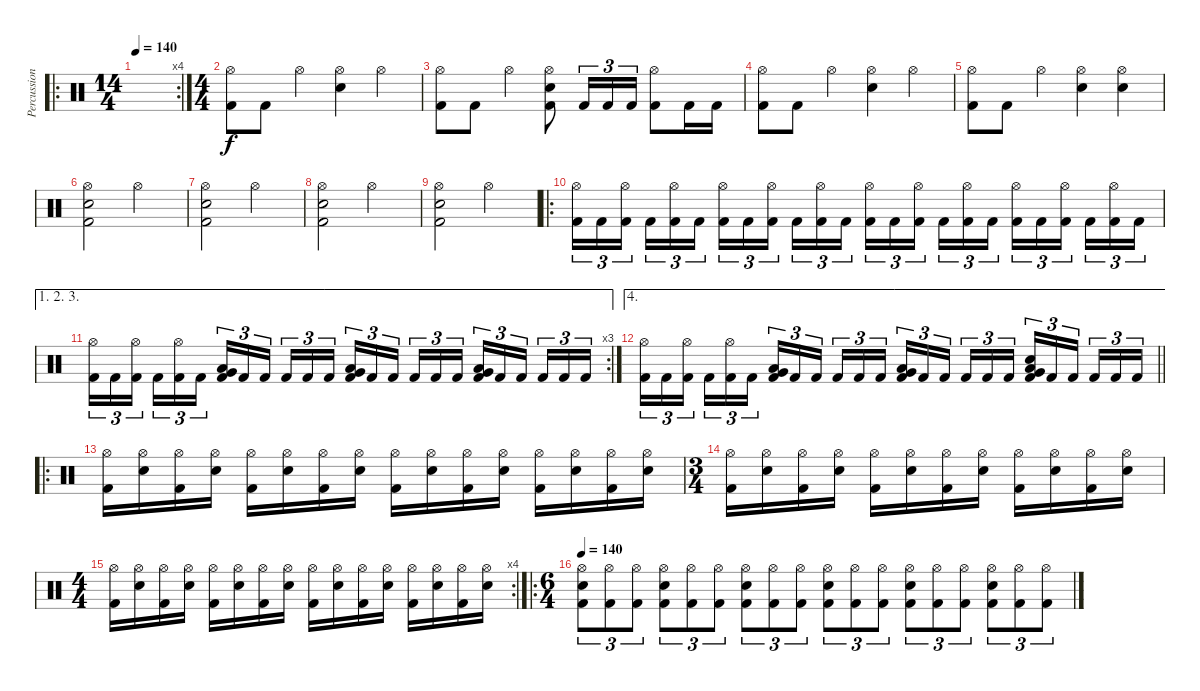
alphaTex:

\track ("Percussion" "Percussion") {instrument percussion}
\staff {score}
\articulation defaults
\ro
\rc 4
\ts (14 4)
\tempo 140
\clef neutral
\ks c
|
\ts (4 4)
("Hi-Hat (open)" "Kick (hit) 2").8 "Kick (hit) 2".8 "Hi-Hat (open)".4 ("Hi-Hat (open)" "Snare (hit) 2").4 "Hi-Hat (open)".4 |
("Hi-Hat (open)" "Kick (hit) 2").8 "Kick (hit) 2".8 "Hi-Hat (open)".4 ("Hi-Hat (open)" "Snare (hit) 2" "Kick (hit) 2").8 "Kick (hit) 2".16{tu (3 2)} "Kick (hit) 2".16{tu (3 2)} "Kick (hit) 2".16{tu (3 2)} ("Hi-Hat (open)" "Kick (hit) 2").8 "Kick (hit) 2".16 "Kick (hit) 2".16 |
("Hi-Hat (open)" "Kick (hit) 2").8 "Kick (hit) 2".8 "Hi-Hat (open)".4 ("Hi-Hat (open)" "Snare (hit) 2").4 "Hi-Hat (open)".4 |
("Hi-Hat (open)" "Kick (hit) 2").8 "Kick (hit) 2".8 "Hi-Hat (open)".4 ("Hi-Hat (open)" "Snare (hit) 2").4 ("Hi-Hat (open)" "Snare (hit) 2").4 |
("Hi-Hat (open)" "Snare (hit) 2" "Kick (hit) 2").2 "Hi-Hat (open)".2 |
("Hi-Hat (open)" "Snare (hit) 2" "Kick (hit) 2").2 "Hi-Hat (open)".2 |
("Hi-Hat (open)" "Snare (hit) 2" "Kick (hit) 2").2 "Hi-Hat (open)".2 |
("Hi-Hat (open)" "Snare (hit) 2" "Kick (hit) 2").2 "Hi-Hat (open)".2 |
\ro
("Hi-Hat (open)" "Kick (hit) 2").16{tu (3 2)} "Kick (hit) 2".16{tu (3 2)} ("Hi-Hat (open)" "Kick (hit) 2").16{tu (3 2)} "Kick (hit) 2".16{tu (3 2)} ("Hi-Hat (open)" "Kick (hit) 2").16{tu (3 2)} "Kick (hit) 2".16{tu (3 2)} ("Hi-Hat (open)" "Kick (hit) 2").16{tu (3 2)} "Kick (hit) 2".16{tu (3 2)} ("Hi-Hat (open)" "Kick (hit) 2").16{tu (3 2)} "Kick (hit) 2".16{tu (3 2)} ("Hi-Hat (open)" "Kick (hit) 2").16{tu (3 2)} "Kick (hit) 2".16{tu (3 2)} ("Hi-Hat (open)" "Kick (hit) 2").16{tu (3 2)} "Kick (hit) 2".16{tu (3 2)} ("Hi-Hat (open)" "Kick (hit) 2").16{tu (3 2)} "Kick (hit) 2".16{tu (3 2)} ("Hi-Hat (open)" "Kick (hit) 2").16{tu (3 2)} "Kick (hit) 2".16{tu (3 2)} ("Hi-Hat (open)" "Kick (hit) 2").16{tu (3 2)} "Kick (hit) 2".16{tu (3 2)} ("Hi-Hat (open)" "Kick (hit) 2").16{tu (3 2)} "Kick (hit) 2".16{tu (3 2)} ("Hi-Hat (open)" "Kick (hit) 2").16{tu (3 2)} "Kick (hit) 2".16{tu (3 2)} |
\ae (1 2 3)
\rc 3
("Hi-Hat (open)" "Kick (hit) 2").16{tu (3 2)} "Kick (hit) 2".16{tu (3 2)} ("Hi-Hat (open)" "Kick (hit) 2").16{tu (3 2)} "Kick (hit) 2".16{tu (3 2)} ("Hi-Hat (open)" "Kick (hit) 2").16{tu (3 2)} "Kick (hit) 2".16{tu (3 2)} ("Low Tom (hit)" "Very Low Tom (hit)" "Kick (hit) 2").16{tu (3 2)} "Kick (hit) 2".16{tu (3 2)} "Kick (hit) 2".16{tu (3 2)} "Kick (hit) 2".16{tu (3 2)} "Kick (hit) 2".16{tu (3 2)} "Kick (hit) 2".16{tu (3 2)} ("Low Tom (hit)" "Very Low Tom (hit)" "Kick (hit) 2").16{tu (3 2)} "Kick (hit) 2".16{tu (3 2)} "Kick (hit) 2".16{tu (3 2)} "Kick (hit) 2".16{tu (3 2)} "Kick (hit) 2".16{tu (3 2)} "Kick (hit) 2".16{tu (3 2)} ("Low Tom (hit)" "Very Low Tom (hit)" "Kick (hit) 2").16{tu (3 2)} "Kick (hit) 2".16{tu (3 2)} "Kick (hit) 2".16{tu (3 2)} "Kick (hit) 2".16{tu (3 2)} "Kick (hit) 2".16{tu (3 2)} "Kick (hit) 2".16{tu (3 2)} |
\ae 4
\barLineRight lightlight
("Hi-Hat (open)" "Kick (hit) 2").16{tu (3 2)} "Kick (hit) 2".16{tu (3 2)} ("Hi-Hat (open)" "Kick (hit) 2").16{tu (3 2)} "Kick (hit) 2".16{tu (3 2)} ("Hi-Hat (open)" "Kick (hit) 2").16{tu (3 2)} "Kick (hit) 2".16{tu (3 2)} ("Low Tom (hit)" "Very Low Tom (hit)" "Kick (hit) 2").16{tu (3 2)} "Kick (hit) 2".16{tu (3 2)} "Kick (hit) 2".16{tu (3 2)} "Kick (hit) 2".16{tu (3 2)} "Kick (hit) 2".16{tu (3 2)} "Kick (hit) 2".16{tu (3 2)} ("Low Tom (hit)" "Very Low Tom (hit)" "Kick (hit) 2").16{tu (3 2)} "Kick (hit) 2".16{tu (3 2)} "Kick (hit) 2".16{tu (3 2)} "Kick (hit) 2".16{tu (3 2)} "Kick (hit) 2".16{tu (3 2)} "Kick (hit) 2".16{tu (3 2)} ("Low Tom (hit)" "Very Low Tom (hit)" "Snare (hit) 2" "Kick (hit) 2").16{tu (3 2)} "Kick (hit) 2".16{tu (3 2)} "Kick (hit) 2".16{tu (3 2)} "Kick (hit) 2".16{tu (3 2)} "Kick (hit) 2".16{tu (3 2)} "Kick (hit) 2".16{tu (3 2)} |
\ro
("Hi-Hat (open)" "Kick (hit) 2").16 ("Hi-Hat (open)" "Snare (hit) 2").16 ("Hi-Hat (open)" "Kick (hit) 2").16 ("Hi-Hat (open)" "Snare (hit) 2").16 ("Hi-Hat (open)" "Kick (hit) 2").16 ("Hi-Hat (open)" "Snare (hit) 2").16 ("Hi-Hat (open)" "Kick (hit) 2").16 ("Hi-Hat (open)" "Snare (hit) 2").16 ("Hi-Hat (open)" "Kick (hit) 2").16 ("Hi-Hat (open)" "Snare (hit) 2").16 ("Hi-Hat (open)" "Kick (hit) 2").16 ("Hi-Hat (open)" "Snare (hit) 2").16 ("Hi-Hat (open)" "Kick (hit) 2").16 ("Hi-Hat (open)" "Snare (hit) 2").16 ("Hi-Hat (open)" "Kick (hit) 2").16 ("Hi-Hat (open)" "Snare (hit) 2").16 |
\ts (3 4)
("Hi-Hat (open)" "Kick (hit) 2").16 ("Hi-Hat (open)" "Snare (hit) 2").16 ("Hi-Hat (open)" "Kick (hit) 2").16 ("Hi-Hat (open)" "Snare (hit) 2").16 ("Hi-Hat (open)" "Kick (hit) 2").16 ("Hi-Hat (open)" "Snare (hit) 2").16 ("Hi-Hat (open)" "Kick (hit) 2").16 ("Hi-Hat (open)" "Snare (hit) 2").16 ("Hi-Hat (open)" "Kick (hit) 2").16 ("Hi-Hat (open)" "Snare (hit) 2").16 ("Hi-Hat (open)" "Kick (hit) 2").16 ("Hi-Hat (open)" "Snare (hit) 2").16 |
\rc 4
\ts (4 4)
("Hi-Hat (open)" "Kick (hit) 2").16 ("Hi-Hat (open)" "Snare (hit) 2").16 ("Hi-Hat (open)" "Kick (hit) 2").16 ("Hi-Hat (open)" "Snare (hit) 2").16 ("Hi-Hat (open)" "Kick (hit) 2").16 ("Hi-Hat (open)" "Snare (hit) 2").16 ("Hi-Hat (open)" "Kick (hit) 2").16 ("Hi-Hat (open)" "Snare (hit) 2").16 ("Hi-Hat (open)" "Kick (hit) 2").16 ("Hi-Hat (open)" "Snare (hit) 2").16 ("Hi-Hat (open)" "Kick (hit) 2").16 ("Hi-Hat (open)" "Snare (hit) 2").16 ("Hi-Hat (open)" "Kick (hit) 2").16 ("Hi-Hat (open)" "Snare (hit) 2").16 ("Hi-Hat (open)" "Kick (hit) 2").16 ("Hi-Hat (open)" "Snare (hit) 2").16 |
\ro
\ts (6 4)
\tempo 140
("Hi-Hat (open)" "Snare (hit) 2" "Kick (hit) 2").8{tu (3 2)} ("Hi-Hat (open)" "Kick (hit) 2").8{tu (3 2)} ("Hi-Hat (open)" "Kick (hit) 2").8{tu (3 2)} ("Hi-Hat (open)" "Snare (hit) 2" "Kick (hit) 2").8{tu (3 2)} ("Hi-Hat (open)" "Kick (hit) 2").8{tu (3 2)} ("Hi-Hat (open)" "Kick (hit) 2").8{tu (3 2)} ("Hi-Hat (open)" "Snare (hit) 2" "Kick (hit) 2").8{tu (3 2)} ("Hi-Hat (open)" "Kick (hit) 2").8{tu (3 2)} ("Hi-Hat (open)" "Kick (hit) 2").8{tu (3 2)} ("Hi-Hat (open)" "Snare (hit) 2" "Kick (hit) 2").8{tu (3 2)} ("Hi-Hat (open)" "Kick (hit) 2").8{tu (3 2)} ("Hi-Hat (open)" "Kick (hit) 2").8{tu (3 2)} ("Hi-Hat (open)" "Snare (hit) 2" "Kick (hit) 2").8{tu (3 2)} ("Hi-Hat (open)" "Kick (hit) 2").8{tu (3 2)} ("Hi-Hat (open)" "Kick (hit) 2").8{tu (3 2)} ("Hi-Hat (open)" "Snare (hit) 2" "Kick (hit) 2").8{tu (3 2)} ("Hi-Hat (open)" "Kick (hit) 2").8{tu (3 2)} ("Hi-Hat (open)" "Kick (hit) 2").8{tu (3 2)}
